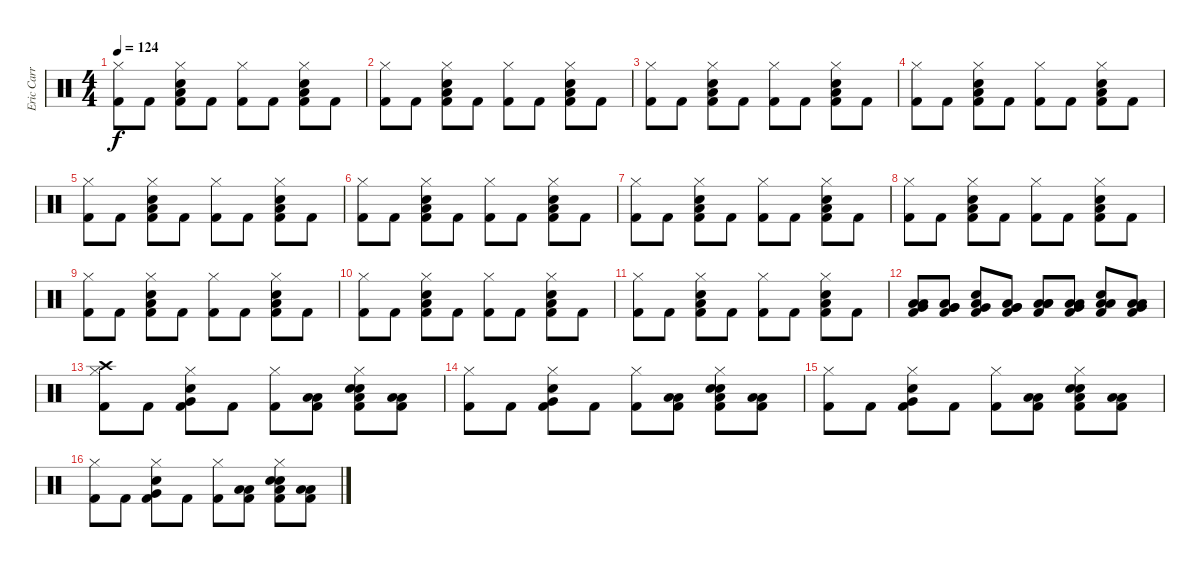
\track ("Eric Carr" "Eric Carr") {instrument percussion}
\staff {score}
\articulation defaults
\ts (4 4)
\tempo 124
\clef neutral
\ks c
("Hi-Hat (closed)" "Kick (hit) 2").8{dy f} "Kick (hit) 2".8 ("Hi-Hat (closed)" "Snare (hit) 2" "Low Floor Tom (hit)" "Kick (hit) 2").8 "Kick (hit) 2".8 ("Hi-Hat (closed)" "Kick (hit) 2").8 "Kick (hit) 2".8 ("Hi-Hat (closed)" "Snare (hit) 2" "Low Floor Tom (hit)" "Kick (hit) 2").8 "Kick (hit) 2".8 |
("Hi-Hat (closed)" "Kick (hit) 2").8 "Kick (hit) 2".8 ("Hi-Hat (closed)" "Snare (hit) 2" "Low Floor Tom (hit)" "Kick (hit) 2").8 "Kick (hit) 2".8 ("Hi-Hat (closed)" "Kick (hit) 2").8 "Kick (hit) 2".8 ("Hi-Hat (closed)" "Snare (hit) 2" "Low Floor Tom (hit)" "Kick (hit) 2").8 "Kick (hit) 2".8 |
("Hi-Hat (closed)" "Kick (hit) 2").8 "Kick (hit) 2".8 ("Hi-Hat (closed)" "Snare (hit) 2" "Low Floor Tom (hit)" "Kick (hit) 2").8 "Kick (hit) 2".8 ("Hi-Hat (closed)" "Kick (hit) 2").8 "Kick (hit) 2".8 ("Hi-Hat (closed)" "Snare (hit) 2" "Low Floor Tom (hit)" "Kick (hit) 2").8 "Kick (hit) 2".8 |
("Hi-Hat (closed)" "Kick (hit) 2").8 "Kick (hit) 2".8 ("Hi-Hat (closed)" "Snare (hit) 2" "Low Floor Tom (hit)" "Kick (hit) 2").8 "Kick (hit) 2".8 ("Hi-Hat (closed)" "Kick (hit) 2").8 "Kick (hit) 2".8 ("Hi-Hat (closed)" "Snare (hit) 2" "Low Floor Tom (hit)" "Kick (hit) 2").8 "Kick (hit) 2".8 |
("Hi-Hat (closed)" "Kick (hit) 2").8 "Kick (hit) 2".8 ("Hi-Hat (closed)" "Snare (hit) 2" "Low Floor Tom (hit)" "Kick (hit) 2").8 "Kick (hit) 2".8 ("Hi-Hat (closed)" "Kick (hit) 2").8 "Kick (hit) 2".8 ("Hi-Hat (closed)" "Snare (hit) 2" "Low Floor Tom (hit)" "Kick (hit) 2").8 "Kick (hit) 2".8 |
("Hi-Hat (closed)" "Kick (hit) 2").8 "Kick (hit) 2".8 ("Hi-Hat (closed)" "Snare (hit) 2" "Low Floor Tom (hit)" "Kick (hit) 2").8 "Kick (hit) 2".8 ("Hi-Hat (closed)" "Kick (hit) 2").8 "Kick (hit) 2".8 ("Hi-Hat (closed)" "Snare (hit) 2" "Low Floor Tom (hit)" "Kick (hit) 2").8 "Kick (hit) 2".8 |
("Hi-Hat (closed)" "Kick (hit) 2").8 "Kick (hit) 2".8 ("Hi-Hat (closed)" "Snare (hit) 2" "Low Floor Tom (hit)" "Kick (hit) 2").8 "Kick (hit) 2".8 ("Hi-Hat (closed)" "Kick (hit) 2").8 "Kick (hit) 2".8 ("Hi-Hat (closed)" "Snare (hit) 2" "Low Floor Tom (hit)" "Kick (hit) 2").8 "Kick (hit) 2".8 |
("Hi-Hat (closed)" "Kick (hit) 2").8 "Kick (hit) 2".8 ("Hi-Hat (closed)" "Snare (hit) 2" "Low Floor Tom (hit)" "Kick (hit) 2").8 "Kick (hit) 2".8 ("Hi-Hat (closed)" "Kick (hit) 2").8 "Kick (hit) 2".8 ("Hi-Hat (closed)" "Snare (hit) 2" "Low Floor Tom (hit)" "Kick (hit) 2").8 "Kick (hit) 2".8 |
("Hi-Hat (closed)" "Kick (hit) 2").8 "Kick (hit) 2".8 ("Hi-Hat (closed)" "Snare (hit) 2" "Low Floor Tom (hit)" "Kick (hit) 2").8 "Kick (hit) 2".8 ("Hi-Hat (closed)" "Kick (hit) 2").8 "Kick (hit) 2".8 ("Hi-Hat (closed)" "Snare (hit) 2" "Low Floor Tom (hit)" "Kick (hit) 2").8 "Kick (hit) 2".8 |
("Hi-Hat (closed)" "Kick (hit) 2").8 "Kick (hit) 2".8 ("Hi-Hat (closed)" "Snare (hit) 2" "Low Floor Tom (hit)" "Kick (hit) 2").8 "Kick (hit) 2".8 ("Hi-Hat (closed)" "Kick (hit) 2").8 "Kick (hit) 2".8 ("Hi-Hat (closed)" "Snare (hit) 2" "Low Floor Tom (hit)" "Kick (hit) 2").8 "Kick (hit) 2".8 |
("Hi-Hat (closed)" "Kick (hit) 2").8 "Kick (hit) 2".8 ("Hi-Hat (closed)" "Snare (hit) 2" "Low Floor Tom (hit)" "Kick (hit) 2").8 "Kick (hit) 2".8 ("Hi-Hat (closed)" "Kick (hit) 2").8 "Kick (hit) 2".8 ("Hi-Hat (closed)" "Snare (hit) 2" "Low Floor Tom (hit)" "Kick (hit) 2").8 "Kick (hit) 2".8 |
("Low Floor Tom (hit)" "Low Tom (hit)" "Very Low Tom (hit)" "Kick (hit) 2").8 ("Very Low Tom (hit)" "Very Low Tom (hit)" "Low Floor Tom (hit)" "Kick (hit) 2").8 ("Low Floor Tom (hit)" "Very Low Tom (hit)" "Snare (hit) 2" "Kick (hit) 2").8 ("Very Low Tom (hit)" "Very Low Tom (hit)" "Low Floor Tom (hit)" "Kick (hit) 2").8 ("Low Tom (hit)" "Low Tom (hit)" "Low Floor Tom (hit)" "Kick (hit) 2").8 ("Very Low Tom (hit)" "Low Tom (hit)" "Low Tom (hit)" "Kick (hit) 2").8 ("Low Floor Tom (hit)" "Low Floor Tom (hit)" "Snare (hit) 2" "Kick (hit) 2").8 ("Very Low Tom (hit)" "Low Tom (hit)" "Low Tom (hit)" "Kick (hit) 2").8 |
("Hi-Hat (closed)" "Crash high (hit)" "Kick (hit) 2").8 "Kick (hit) 2".8 ("Hi-Hat (closed)" "Very Low Tom (hit)" "Snare (hit) 2" "Kick (hit) 2").8 "Kick (hit) 2".8 ("Hi-Hat (closed)" "Kick (hit) 2").8 ("Low Tom (hit)" "Low Tom (hit)" "Kick (hit) 2").8 ("Hi-Hat (closed)" "Snare (hit) 2" "Low Floor Tom (hit)" "Snare (hit) 2" "Kick (hit) 2").8 ("Low Tom (hit)" "Low Tom (hit)" "Kick (hit) 2").8 |
("Hi-Hat (closed)" "Kick (hit) 2").8 "Kick (hit) 2".8 ("Hi-Hat (closed)" "Very Low Tom (hit)" "Snare (hit) 2" "Kick (hit) 2").8 "Kick (hit) 2".8 ("Hi-Hat (closed)" "Kick (hit) 2").8 ("Low Tom (hit)" "Low Tom (hit)" "Kick (hit) 2").8 ("Hi-Hat (closed)" "Snare (hit) 2" "Low Floor Tom (hit)" "Snare (hit) 2" "Kick (hit) 2").8 ("Low Tom (hit)" "Low Tom (hit)" "Kick (hit) 2").8 |
("Hi-Hat (closed)" "Kick (hit) 2").8 "Kick (hit) 2".8 ("Hi-Hat (closed)" "Very Low Tom (hit)" "Snare (hit) 2" "Kick (hit) 2").8 "Kick (hit) 2".8 ("Hi-Hat (closed)" "Kick (hit) 2").8 ("Low Tom (hit)" "Low Tom (hit)" "Kick (hit) 2").8 ("Hi-Hat (closed)" "Snare (hit) 2" "Low Floor Tom (hit)" "Snare (hit) 2" "Kick (hit) 2").8 ("Low Tom (hit)" "Low Tom (hit)" "Kick (hit) 2").8 |
("Hi-Hat (closed)" "Kick (hit) 2").8 "Kick (hit) 2".8 ("Hi-Hat (closed)" "Very Low Tom (hit)" "Snare (hit) 2" "Kick (hit) 2").8 "Kick (hit) 2".8 ("Hi-Hat (closed)" "Kick (hit) 2").8 ("Low Tom (hit)" "Low Tom (hit)" "Kick (hit) 2").8 ("Hi-Hat (closed)" "Snare (hit) 2" "Low Floor Tom (hit)" "Snare (hit) 2" "Kick (hit) 2").8 ("Low Tom (hit)" "Low Tom (hit)" "Kick (hit) 2").8
